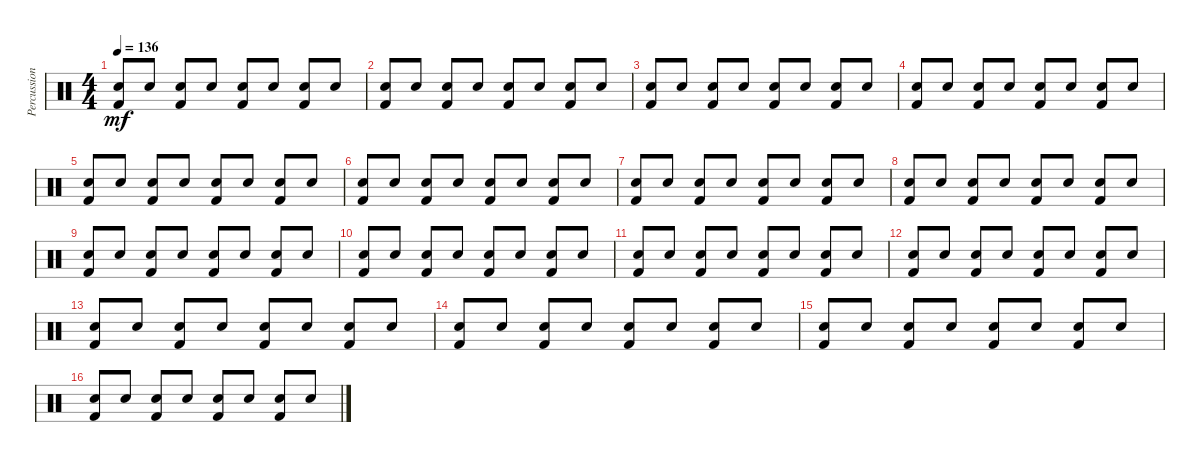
\track ("Percussions" "Percussion") {instrument percussion}
\staff {score}
\articulation defaults
\ts (4 4)
\tempo 136
\clef neutral
\ks c
("Kick (hit) 2" "Snare (hit) 2").8{dy mf} "Snare (hit) 2".8 ("Kick (hit) 2" "Snare (hit) 2").8 "Snare (hit) 2".8 ("Kick (hit) 2" "Snare (hit) 2").8 "Snare (hit) 2".8 ("Kick (hit) 2" "Snare (hit) 2").8 "Snare (hit) 2".8 |
("Kick (hit) 2" "Snare (hit) 2").8 "Snare (hit) 2".8 ("Kick (hit) 2" "Snare (hit) 2").8 "Snare (hit) 2".8 ("Kick (hit) 2" "Snare (hit) 2").8 "Snare (hit) 2".8 ("Kick (hit) 2" "Snare (hit) 2").8 "Snare (hit) 2".8 |
("Kick (hit) 2" "Snare (hit) 2").8 "Snare (hit) 2".8 ("Kick (hit) 2" "Snare (hit) 2").8 "Snare (hit) 2".8 ("Kick (hit) 2" "Snare (hit) 2").8 "Snare (hit) 2".8 ("Kick (hit) 2" "Snare (hit) 2").8 "Snare (hit) 2".8 |
("Kick (hit) 2" "Snare (hit) 2").8 "Snare (hit) 2".8 ("Kick (hit) 2" "Snare (hit) 2").8 "Snare (hit) 2".8 ("Kick (hit) 2" "Snare (hit) 2").8 "Snare (hit) 2".8 ("Kick (hit) 2" "Snare (hit) 2").8 "Snare (hit) 2".8 |
("Kick (hit) 2" "Snare (hit) 2").8 "Snare (hit) 2".8 ("Kick (hit) 2" "Snare (hit) 2").8 "Snare (hit) 2".8 ("Kick (hit) 2" "Snare (hit) 2").8 "Snare (hit) 2".8 ("Kick (hit) 2" "Snare (hit) 2").8 "Snare (hit) 2".8 |
("Kick (hit) 2" "Snare (hit) 2").8 "Snare (hit) 2".8 ("Kick (hit) 2" "Snare (hit) 2").8 "Snare (hit) 2".8 ("Kick (hit) 2" "Snare (hit) 2").8 "Snare (hit) 2".8 ("Kick (hit) 2" "Snare (hit) 2").8 "Snare (hit) 2".8 |
("Kick (hit) 2" "Snare (hit) 2").8 "Snare (hit) 2".8 ("Kick (hit) 2" "Snare (hit) 2").8 "Snare (hit) 2".8 ("Kick (hit) 2" "Snare (hit) 2").8 "Snare (hit) 2".8 ("Kick (hit) 2" "Snare (hit) 2").8 "Snare (hit) 2".8 |
("Kick (hit) 2" "Snare (hit) 2").8 "Snare (hit) 2".8 ("Kick (hit) 2" "Snare (hit) 2").8 "Snare (hit) 2".8 ("Kick (hit) 2" "Snare (hit) 2").8 "Snare (hit) 2".8 ("Kick (hit) 2" "Snare (hit) 2").8 "Snare (hit) 2".8 |
("Kick (hit) 2" "Snare (hit) 2").8 "Snare (hit) 2".8 ("Kick (hit) 2" "Snare (hit) 2").8 "Snare (hit) 2".8 ("Kick (hit) 2" "Snare (hit) 2").8 "Snare (hit) 2".8 ("Kick (hit) 2" "Snare (hit) 2").8 "Snare (hit) 2".8 |
("Kick (hit) 2" "Snare (hit) 2").8 "Snare (hit) 2".8 ("Kick (hit) 2" "Snare (hit) 2").8 "Snare (hit) 2".8 ("Kick (hit) 2" "Snare (hit) 2").8 "Snare (hit) 2".8 ("Kick (hit) 2" "Snare (hit) 2").8 "Snare (hit) 2".8 |
("Kick (hit) 2" "Snare (hit) 2").8 "Snare (hit) 2".8 ("Kick (hit) 2" "Snare (hit) 2").8 "Snare (hit) 2".8 ("Kick (hit) 2" "Snare (hit) 2").8 "Snare (hit) 2".8 ("Kick (hit) 2" "Snare (hit) 2").8 "Snare (hit) 2".8 |
("Kick (hit) 2" "Snare (hit) 2").8 "Snare (hit) 2".8 ("Kick (hit) 2" "Snare (hit) 2").8 "Snare (hit) 2".8 ("Kick (hit) 2" "Snare (hit) 2").8 "Snare (hit) 2".8 ("Kick (hit) 2" "Snare (hit) 2").8 "Snare (hit) 2".8 |
("Kick (hit) 2" "Snare (hit) 2").8 "Snare (hit) 2".8 ("Kick (hit) 2" "Snare (hit) 2").8 "Snare (hit) 2".8 ("Kick (hit) 2" "Snare (hit) 2").8 "Snare (hit) 2".8 ("Kick (hit) 2" "Snare (hit) 2").8 "Snare (hit) 2".8 |
("Kick (hit) 2" "Snare (hit) 2").8 "Snare (hit) 2".8 ("Kick (hit) 2" "Snare (hit) 2").8 "Snare (hit) 2".8 ("Kick (hit) 2" "Snare (hit) 2").8 "Snare (hit) 2".8 ("Kick (hit) 2" "Snare (hit) 2").8 "Snare (hit) 2".8 |
("Kick (hit) 2" "Snare (hit) 2").8 "Snare (hit) 2".8 ("Kick (hit) 2" "Snare (hit) 2").8 "Snare (hit) 2".8 ("Kick (hit) 2" "Snare (hit) 2").8 "Snare (hit) 2".8 ("Kick (hit) 2" "Snare (hit) 2").8 "Snare (hit) 2".8 |
("Kick (hit) 2" "Snare (hit) 2").8 "Snare (hit) 2".8 ("Kick (hit) 2" "Snare (hit) 2").8 "Snare (hit) 2".8 ("Kick (hit) 2" "Snare (hit) 2").8 "Snare (hit) 2".8 ("Kick (hit) 2" "Snare (hit) 2").8 "Snare (hit) 2".8
